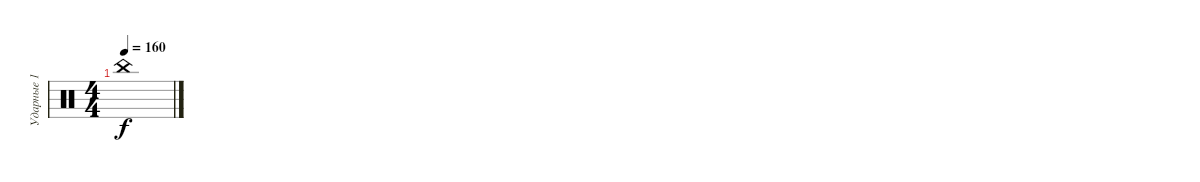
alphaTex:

\track ("Ударные 1" "Ударные 1") {instrument percussion}
\staff {score}
\articulation defaults
\ts (4 4)
\tempo 160
\clef neutral
\ks c "China (hit)".1{dy f}
